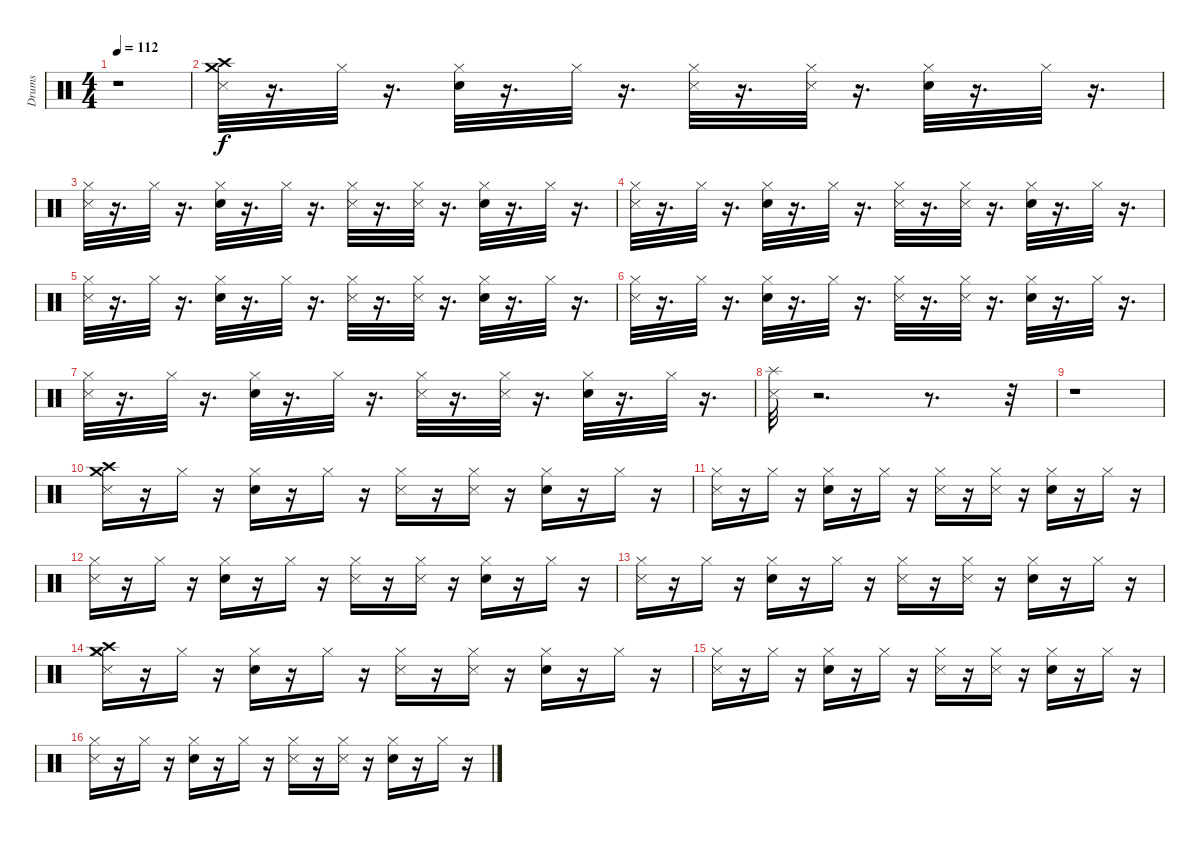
\track ("Drums" "Drums") {instrument percussion}
\staff {score}
\articulation defaults
\ts (4 4)
\tempo 112
\clef neutral
\ks c
r.1{dy f} |
("Crash medium (hit)" "Crash high (hit)" "Metronome (hit)").32 r.16{d} "Hi-Hat (closed)".32 r.16{d} ("Hi-Hat (closed)" "Electric Snare (hit)").32 r.16{d} "Hi-Hat (closed)".32 r.16{d} ("Hi-Hat (closed)" "Metronome (hit)").32 r.16{d} ("Hi-Hat (closed)" "Metronome (hit)").32 r.16{d} ("Hi-Hat (closed)" "Electric Snare (hit)").32 r.16{d} "Hi-Hat (closed)".32 r.16{d} |
("Hi-Hat (closed)" "Metronome (hit)").32 r.16{d} "Hi-Hat (closed)".32 r.16{d} ("Hi-Hat (closed)" "Electric Snare (hit)").32 r.16{d} "Hi-Hat (closed)".32 r.16{d} ("Hi-Hat (closed)" "Metronome (hit)").32 r.16{d} ("Hi-Hat (closed)" "Metronome (hit)").32 r.16{d} ("Hi-Hat (closed)" "Electric Snare (hit)").32 r.16{d} "Hi-Hat (closed)".32 r.16{d} |
("Hi-Hat (closed)" "Metronome (hit)").32 r.16{d} "Hi-Hat (closed)".32 r.16{d} ("Hi-Hat (closed)" "Electric Snare (hit)").32 r.16{d} "Hi-Hat (closed)".32 r.16{d} ("Hi-Hat (closed)" "Metronome (hit)").32 r.16{d} ("Hi-Hat (closed)" "Metronome (hit)").32 r.16{d} ("Hi-Hat (closed)" "Electric Snare (hit)").32 r.16{d} "Hi-Hat (closed)".32 r.16{d} |
("Hi-Hat (closed)" "Metronome (hit)").32 r.16{d} "Hi-Hat (closed)".32 r.16{d} ("Hi-Hat (closed)" "Electric Snare (hit)").32 r.16{d} "Hi-Hat (closed)".32 r.16{d} ("Hi-Hat (closed)" "Metronome (hit)").32 r.16{d} ("Hi-Hat (closed)" "Metronome (hit)").32 r.16{d} ("Hi-Hat (closed)" "Electric Snare (hit)").32 r.16{d} "Hi-Hat (closed)".32 r.16{d} |
("Hi-Hat (closed)" "Metronome (hit)").32 r.16{d} "Hi-Hat (closed)".32 r.16{d} ("Hi-Hat (closed)" "Electric Snare (hit)").32 r.16{d} "Hi-Hat (closed)".32 r.16{d} ("Hi-Hat (closed)" "Metronome (hit)").32 r.16{d} ("Hi-Hat (closed)" "Metronome (hit)").32 r.16{d} ("Hi-Hat (closed)" "Electric Snare (hit)").32 r.16{d} "Hi-Hat (closed)".32 r.16{d} |
("Hi-Hat (closed)" "Metronome (hit)").32 r.16{d} "Hi-Hat (closed)".32 r.16{d} ("Hi-Hat (closed)" "Electric Snare (hit)").32 r.16{d} "Hi-Hat (closed)".32 r.16{d} ("Hi-Hat (closed)" "Metronome (hit)").32 r.16{d} ("Hi-Hat (closed)" "Metronome (hit)").32 r.16{d} ("Hi-Hat (closed)" "Electric Snare (hit)").32 r.16{d} "Hi-Hat (closed)".32 r.16{d} |
("Splash (hit)" "Metronome (hit)").32 r.2{d} r.8{d} r.32 |
r.1 |
("Crash medium (hit)" "Crash high (hit)" "Metronome (hit)").16 r.16 "Hi-Hat (closed)".16 r.16 ("Hi-Hat (closed)" "Electric Snare (hit)").16 r.16 "Hi-Hat (closed)".16 r.16 ("Hi-Hat (closed)" "Metronome (hit)").16 r.16 ("Hi-Hat (closed)" "Metronome (hit)").16 r.16 ("Hi-Hat (closed)" "Electric Snare (hit)").16 r.16 "Hi-Hat (closed)".16 r.16 |
("Hi-Hat (closed)" "Metronome (hit)").16 r.16 "Hi-Hat (closed)".16 r.16 ("Hi-Hat (closed)" "Electric Snare (hit)").16 r.16 "Hi-Hat (closed)".16 r.16 ("Hi-Hat (closed)" "Metronome (hit)").16 r.16 ("Hi-Hat (closed)" "Metronome (hit)").16 r.16 ("Hi-Hat (closed)" "Electric Snare (hit)").16 r.16 "Hi-Hat (closed)".16 r.16 |
("Hi-Hat (closed)" "Metronome (hit)").16 r.16 "Hi-Hat (closed)".16 r.16 ("Hi-Hat (closed)" "Electric Snare (hit)").16 r.16 "Hi-Hat (closed)".16 r.16 ("Hi-Hat (closed)" "Metronome (hit)").16 r.16 ("Hi-Hat (closed)" "Metronome (hit)").16 r.16 ("Hi-Hat (closed)" "Electric Snare (hit)").16 r.16 "Hi-Hat (closed)".16 r.16 |
("Hi-Hat (closed)" "Metronome (hit)").16 r.16 "Hi-Hat (closed)".16 r.16 ("Hi-Hat (closed)" "Electric Snare (hit)").16 r.16 "Hi-Hat (closed)".16 r.16 ("Hi-Hat (closed)" "Metronome (hit)").16 r.16 ("Hi-Hat (closed)" "Metronome (hit)").16 r.16 ("Hi-Hat (closed)" "Electric Snare (hit)").16 r.16 "Hi-Hat (closed)".16 r.16 |
("Crash high (hit)" "Crash medium (hit)" "Hi-Hat (closed)" "Metronome (hit)").16 r.16 "Hi-Hat (closed)".16 r.16 ("Hi-Hat (closed)" "Electric Snare (hit)").16 r.16 "Hi-Hat (closed)".16 r.16 ("Hi-Hat (closed)" "Metronome (hit)").16 r.16 ("Hi-Hat (closed)" "Metronome (hit)").16 r.16 ("Hi-Hat (closed)" "Electric Snare (hit)").16 r.16 "Hi-Hat (closed)".16 r.16 |
("Hi-Hat (closed)" "Metronome (hit)").16 r.16 "Hi-Hat (closed)".16 r.16 ("Hi-Hat (closed)" "Electric Snare (hit)").16 r.16 "Hi-Hat (closed)".16 r.16 ("Hi-Hat (closed)" "Metronome (hit)").16 r.16 ("Hi-Hat (closed)" "Metronome (hit)").16 r.16 ("Hi-Hat (closed)" "Electric Snare (hit)").16 r.16 "Hi-Hat (closed)".16 r.16 |
("Hi-Hat (closed)" "Metronome (hit)").16 r.16 "Hi-Hat (closed)".16 r.16 ("Hi-Hat (closed)" "Electric Snare (hit)").16 r.16 "Hi-Hat (closed)".16 r.16 ("Hi-Hat (closed)" "Metronome (hit)").16 r.16 ("Hi-Hat (closed)" "Metronome (hit)").16 r.16 ("Hi-Hat (closed)" "Electric Snare (hit)").16 r.16 "Hi-Hat (closed)".16 r.16
